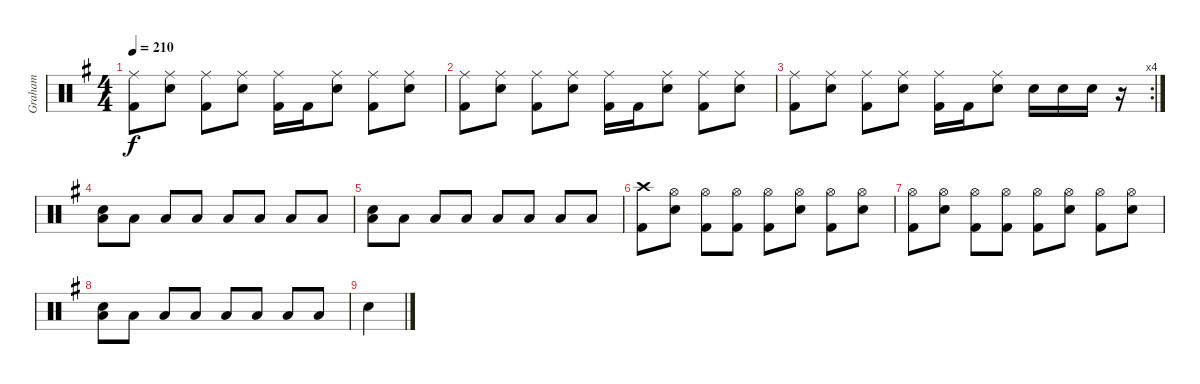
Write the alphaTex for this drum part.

\track ("Graham" "Graham") {instrument percussion}
\staff {score}
\articulation defaults
\ts (4 4)
\tempo 210
\clef neutral
\ks g
("Ride (middle)" "Kick (hit) 2").8{dy f} ("Ride (middle)" "Electric Snare (hit)").8 ("Ride (middle)" "Kick (hit) 2").8 ("Ride (middle)" "Electric Snare (hit)").8 ("Ride (middle)" "Kick (hit) 2").16 "Kick (hit) 2".16 ("Ride (middle)" "Electric Snare (hit)").8 ("Ride (middle)" "Kick (hit) 2").8 ("Ride (middle)" "Electric Snare (hit)").8 |
("Ride (middle)" "Kick (hit) 2").8 ("Ride (middle)" "Electric Snare (hit)").8 ("Ride (middle)" "Kick (hit) 2").8 ("Ride (middle)" "Electric Snare (hit)").8 ("Ride (middle)" "Kick (hit) 2").16 "Kick (hit) 2".16 ("Ride (middle)" "Electric Snare (hit)").8 ("Ride (middle)" "Kick (hit) 2").8 ("Ride (middle)" "Electric Snare (hit)").8 |
\rc 4
("Ride (middle)" "Kick (hit) 2").8 ("Ride (middle)" "Electric Snare (hit)").8 ("Ride (middle)" "Kick (hit) 2").8 ("Ride (middle)" "Electric Snare (hit)").8 ("Ride (middle)" "Kick (hit) 2").16 "Kick (hit) 2".16 ("Ride (middle)" "Electric Snare (hit)").8 "Electric Snare (hit)".16 "Electric Snare (hit)".16 "Electric Snare (hit)".16 r.16 |
("Electric Snare (hit)" "Low Tom (hit)").8 "Low Floor Tom (hit)".8 "Low Floor Tom (hit)".8 "Low Tom (hit)".8 "Low Floor Tom (hit)".8 "Low Floor Tom (hit)".8 "Low Tom (hit)".8 "Low Floor Tom (hit)".8 |
("Electric Snare (hit)" "Low Tom (hit)").8 "Low Floor Tom (hit)".8 "Low Floor Tom (hit)".8 "Low Tom (hit)".8 "Low Floor Tom (hit)".8 "Low Floor Tom (hit)".8 "Low Tom (hit)".8 "Low Floor Tom (hit)".8 |
("Crash high (hit)" "Kick (hit) 2").8 ("Hi-Hat (open)" "Electric Snare (hit)").8 ("Hi-Hat (open)" "Kick (hit) 2").8 ("Hi-Hat (open)" "Kick (hit) 2").8 ("Hi-Hat (open)" "Kick (hit) 2").8 ("Hi-Hat (open)" "Electric Snare (hit)").8 ("Hi-Hat (open)" "Kick (hit) 2").8 ("Hi-Hat (open)" "Electric Snare (hit)").8 |
("Hi-Hat (open)" "Kick (hit) 2").8 ("Hi-Hat (open)" "Electric Snare (hit)").8 ("Hi-Hat (open)" "Kick (hit) 2").8 ("Hi-Hat (open)" "Kick (hit) 2").8 ("Hi-Hat (open)" "Kick (hit) 2").8 ("Hi-Hat (open)" "Electric Snare (hit)").8 ("Hi-Hat (open)" "Kick (hit) 2").8 ("Hi-Hat (open)" "Electric Snare (hit)").8 |
("Electric Snare (hit)" "Low Tom (hit)").8 "Low Floor Tom (hit)".8 "Low Floor Tom (hit)".8 "Low Tom (hit)".8 "Low Floor Tom (hit)".8 "Low Floor Tom (hit)".8 "Low Tom (hit)".8 "Low Floor Tom (hit)".8 |
"Electric Snare (hit)".4
